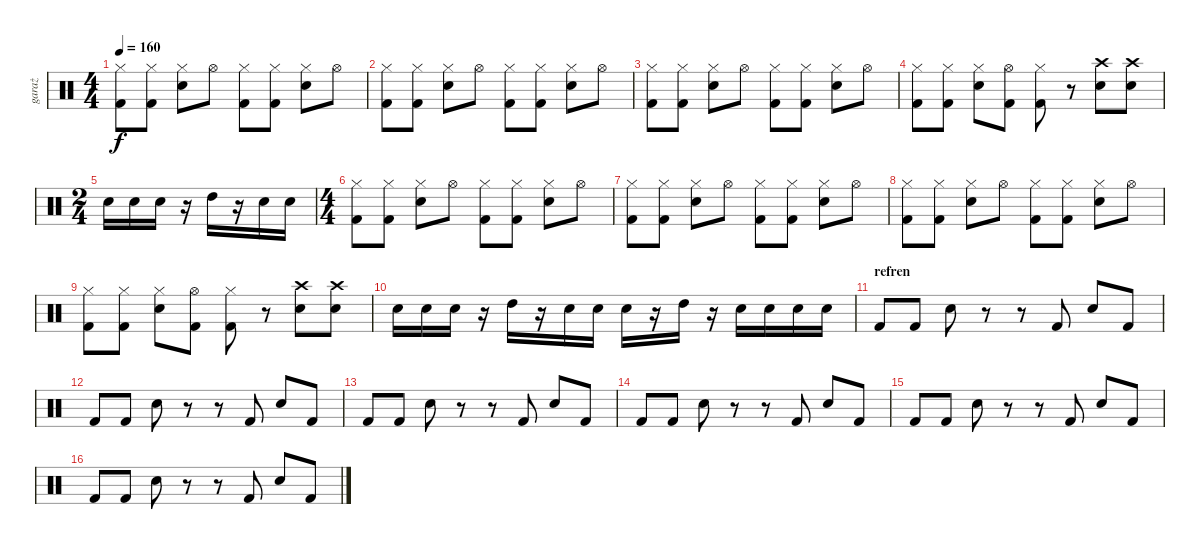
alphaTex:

\track ("garaż" "garaż") {instrument percussion}
\staff {score}
\articulation defaults
\ts (4 4)
\tempo 160
\clef neutral
\ks c
("Hi-Hat (closed)" "Kick (hit) 2").8{dy f} ("Hi-Hat (closed)" "Kick (hit) 2").8 ("Hi-Hat (closed)" "Snare (hit) 2").8 "Hi-Hat (open)".8 ("Hi-Hat (closed)" "Kick (hit) 2").8 ("Hi-Hat (closed)" "Kick (hit) 2").8 ("Hi-Hat (closed)" "Snare (hit) 2").8 "Hi-Hat (open)".8 |
("Hi-Hat (closed)" "Kick (hit) 2").8 ("Hi-Hat (closed)" "Kick (hit) 2").8 ("Hi-Hat (closed)" "Snare (hit) 2").8 "Hi-Hat (open)".8 ("Hi-Hat (closed)" "Kick (hit) 2").8 ("Hi-Hat (closed)" "Kick (hit) 2").8 ("Hi-Hat (closed)" "Snare (hit) 2").8 "Hi-Hat (open)".8 |
("Hi-Hat (closed)" "Kick (hit) 2").8 ("Hi-Hat (closed)" "Kick (hit) 2").8 ("Hi-Hat (closed)" "Snare (hit) 2").8 "Hi-Hat (open)".8 ("Hi-Hat (closed)" "Kick (hit) 2").8 ("Hi-Hat (closed)" "Kick (hit) 2").8 ("Hi-Hat (closed)" "Snare (hit) 2").8 "Hi-Hat (open)".8 |
("Hi-Hat (closed)" "Kick (hit) 2").8 ("Hi-Hat (closed)" "Kick (hit) 2").8 ("Hi-Hat (closed)" "Snare (hit) 2").8 ("Hi-Hat (open)" "Kick (hit) 2").8 ("Hi-Hat (closed)" "Kick (hit) 2").8 r.8 ("Crash high (hit)" "Snare (hit) 2").8 ("Crash high (hit)" "Snare (hit) 2").8 |
\ts (2 4)
"Snare (hit) 2".16 "Snare (hit) 2".16 "Snare (hit) 2".16 r.16 "High Tom (hit)".16 r.16 "Snare (hit) 2".16 "Snare (hit) 2".16 |
\ts (4 4)
("Hi-Hat (closed)" "Kick (hit) 2").8 ("Hi-Hat (closed)" "Kick (hit) 2").8 ("Hi-Hat (closed)" "Snare (hit) 2").8 "Hi-Hat (open)".8 ("Hi-Hat (closed)" "Kick (hit) 2").8 ("Hi-Hat (closed)" "Kick (hit) 2").8 ("Hi-Hat (closed)" "Snare (hit) 2").8 "Hi-Hat (open)".8 |
("Hi-Hat (closed)" "Kick (hit) 2").8 ("Hi-Hat (closed)" "Kick (hit) 2").8 ("Hi-Hat (closed)" "Snare (hit) 2").8 "Hi-Hat (open)".8 ("Hi-Hat (closed)" "Kick (hit) 2").8 ("Hi-Hat (closed)" "Kick (hit) 2").8 ("Hi-Hat (closed)" "Snare (hit) 2").8 "Hi-Hat (open)".8 |
("Hi-Hat (closed)" "Kick (hit) 2").8 ("Hi-Hat (closed)" "Kick (hit) 2").8 ("Hi-Hat (closed)" "Snare (hit) 2").8 "Hi-Hat (open)".8 ("Hi-Hat (closed)" "Kick (hit) 2").8 ("Hi-Hat (closed)" "Kick (hit) 2").8 ("Hi-Hat (closed)" "Snare (hit) 2").8 "Hi-Hat (open)".8 |
("Hi-Hat (closed)" "Kick (hit) 2").8 ("Hi-Hat (closed)" "Kick (hit) 2").8 ("Hi-Hat (closed)" "Snare (hit) 2").8 ("Hi-Hat (open)" "Kick (hit) 2").8 ("Hi-Hat (closed)" "Kick (hit) 2").8 r.8 ("Crash high (hit)" "Snare (hit) 2").8 ("Crash high (hit)" "Snare (hit) 2").8 |
"Snare (hit) 2".16 "Snare (hit) 2".16 "Snare (hit) 2".16 r.16 "High Tom (hit)".16 r.16 "Snare (hit) 2".16 "Snare (hit) 2".16 "Snare (hit) 2".16 r.16 "High Tom (hit)".16 r.16 "Snare (hit) 2".16 "Snare (hit) 2".16 "Snare (hit) 2".16 "Snare (hit) 2".16 |
\section ("" "refren")
"Kick (hit) 2".8 "Kick (hit) 2".8 "Snare (hit) 2".8 r.8 r.8 "Kick (hit) 2".8 "Snare (hit) 2".8 "Kick (hit) 2".8 |
"Kick (hit) 2".8 "Kick (hit) 2".8 "Snare (hit) 2".8 r.8 r.8 "Kick (hit) 2".8 "Snare (hit) 2".8 "Kick (hit) 2".8 |
"Kick (hit) 2".8 "Kick (hit) 2".8 "Snare (hit) 2".8 r.8 r.8 "Kick (hit) 2".8 "Snare (hit) 2".8 "Kick (hit) 2".8 |
"Kick (hit) 2".8 "Kick (hit) 2".8 "Snare (hit) 2".8 r.8 r.8 "Kick (hit) 2".8 "Snare (hit) 2".8 "Kick (hit) 2".8 |
"Kick (hit) 2".8 "Kick (hit) 2".8 "Snare (hit) 2".8 r.8 r.8 "Kick (hit) 2".8 "Snare (hit) 2".8 "Kick (hit) 2".8 |
"Kick (hit) 2".8 "Kick (hit) 2".8 "Snare (hit) 2".8 r.8 r.8 "Kick (hit) 2".8 "Snare (hit) 2".8 "Kick (hit) 2".8
